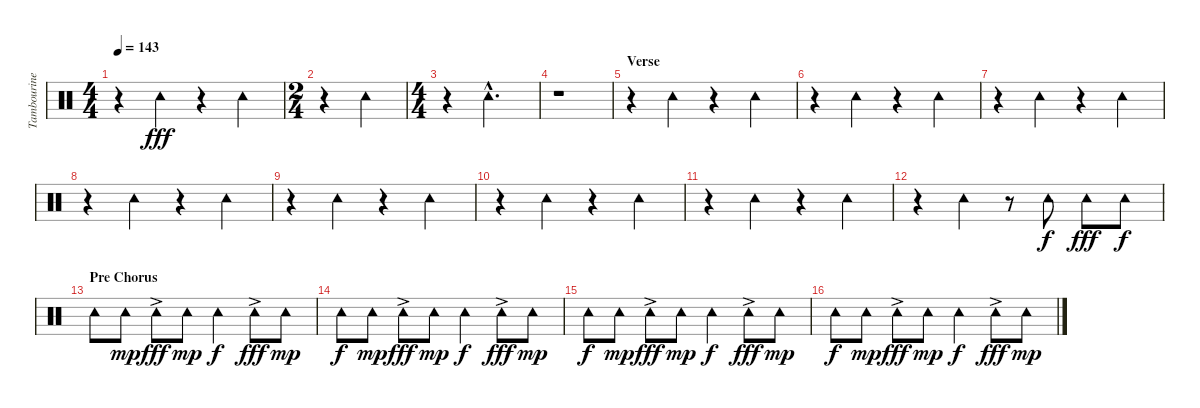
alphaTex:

\track ("Tambourine" "Tambourine") {instrument percussion}
\staff {score}
\articulation defaults
\ts (4 4)
\tempo 143
\clef neutral
\ks c
r.4{dy fff} "Tambourine (hit)".4 r.4 "Tambourine (hit)".4 |
\ts (2 4)
r.4 "Tambourine (hit)".4 |
\ts (4 4)
r.4 "Tambourine (hit)"{hac}.2{d} |
r.1 |
\section ("" "Verse")
r.4 "Tambourine (hit)".4 r.4 "Tambourine (hit)".4 |
r.4 "Tambourine (hit)".4 r.4 "Tambourine (hit)".4 |
r.4 "Tambourine (hit)".4 r.4 "Tambourine (hit)".4 |
r.4 "Tambourine (hit)".4 r.4 "Tambourine (hit)".4 |
r.4 "Tambourine (hit)".4 r.4 "Tambourine (hit)".4 |
r.4 "Tambourine (hit)".4 r.4 "Tambourine (hit)".4 |
r.4 "Tambourine (hit)".4 r.4 "Tambourine (hit)".4 |
r.4 "Tambourine (hit)".4 r.8 "Tambourine (hit)".8{dy f} "Tambourine (hit)".8{dy fff} "Tambourine (hit)".8{dy f} |
\section ("" "Pre Chorus")
"Tambourine (hit)".8 "Tambourine (hit)".8{dy mp} "Tambourine (hit)"{ac}.8{dy fff} "Tambourine (hit)".8{dy mp} "Tambourine (hit)".4{dy f} "Tambourine (hit)"{ac}.8{dy fff} "Tambourine (hit)".8{dy mp} |
"Tambourine (hit)".8{dy f} "Tambourine (hit)".8{dy mp} "Tambourine (hit)"{ac}.8{dy fff} "Tambourine (hit)".8{dy mp} "Tambourine (hit)".4{dy f} "Tambourine (hit)"{ac}.8{dy fff} "Tambourine (hit)".8{dy mp} |
"Tambourine (hit)".8{dy f} "Tambourine (hit)".8{dy mp} "Tambourine (hit)"{ac}.8{dy fff} "Tambourine (hit)".8{dy mp} "Tambourine (hit)".4{dy f} "Tambourine (hit)"{ac}.8{dy fff} "Tambourine (hit)".8{dy mp} |
"Tambourine (hit)".8{dy f} "Tambourine (hit)".8{dy mp} "Tambourine (hit)"{ac}.8{dy fff} "Tambourine (hit)".8{dy mp} "Tambourine (hit)".4{dy f} "Tambourine (hit)"{ac}.8{dy fff} "Tambourine (hit)".8{dy mp}
